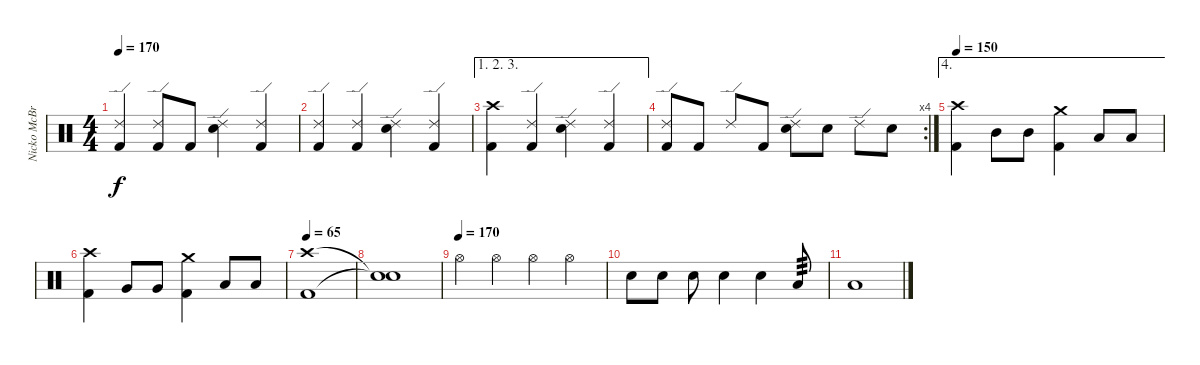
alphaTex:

\track ("Nicko McBrain" "Nicko McBr") {instrument percussion}
\staff {score}
\articulation defaults
\ts (4 4)
\tempo 170
\clef neutral
\ks c
("Ride (edge) 2" "Kick (hit) 2").4{dy f} ("Ride (edge) 2" "Kick (hit) 2").8 "Kick (hit) 2".8 ("Ride (edge) 2" "Electric Snare (hit)").4 ("Ride (edge) 2" "Kick (hit) 2").4 |
("Ride (edge) 2" "Kick (hit) 2").4 ("Ride (edge) 2" "Kick (hit) 2").4 ("Ride (edge) 2" "Electric Snare (hit)").4 ("Ride (edge) 2" "Kick (hit) 2").4 |
\ae (1 2 3)
("Crash high (hit)" "Kick (hit) 2").4 ("Ride (edge) 2" "Kick (hit) 2").4 ("Ride (edge) 2" "Electric Snare (hit)").4 ("Ride (edge) 2" "Kick (hit) 2").4 |
\rc 4
("Ride (edge) 2" "Kick (hit) 2").8 "Kick (hit) 2".8 "Ride (edge) 2".8 "Kick (hit) 2".8 ("Ride (edge) 2" "Electric Snare (hit)").8 "Electric Snare (hit)".8 "Ride (edge) 2".8 "Electric Snare (hit)".8 |
\ae 4
\tempo 150
("Crash high (hit)" "Kick (hit) 2").4 "Mid Tom (hit)".8 "Mid Tom (hit)".8 ("Crash medium (hit)" "Kick (hit) 2").4 "Low Tom (hit)".8 "Low Tom (hit)".8 |
("Crash high (hit)" "Kick (hit) 2").4 "Very Low Tom (hit)".8 "Very Low Tom (hit)".8 ("Crash medium (hit)" "Kick (hit) 2").4 "Low Floor Tom (hit)".8 "Low Floor Tom (hit)".8 |
\tempo 65
("Crash high (hit)" "Kick (hit) 2").1 |
("Snare (hit)"{t} "Snare (hit)"{t}).1 |
\tempo (170)
"Hi-Hat (open)".4 "Hi-Hat (open)".4 "Hi-Hat (open)".4 "Hi-Hat (open)".4 |
"Electric Snare (hit)".8 "Electric Snare (hit)".8 "Electric Snare (hit)".8 "Electric Snare (hit)".4 "Electric Snare (hit)".4 "Low Tom (hit)".8{tp 3} |
"Low Tom (hit)".1
